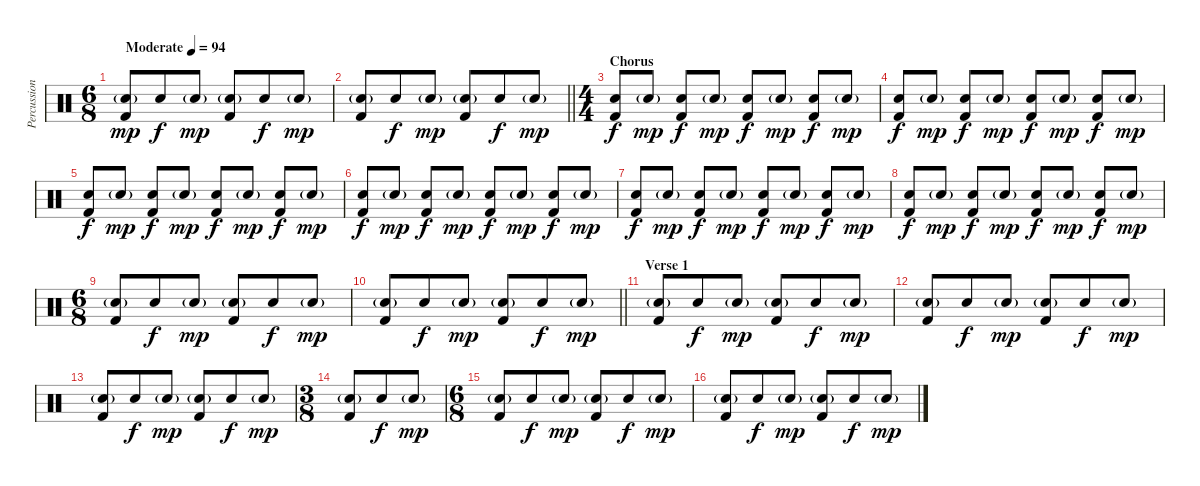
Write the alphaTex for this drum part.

\track ("Percussion" "Percussion") {instrument percussion}
\staff {score}
\articulation defaults
\ts (6 8)
\tempo (94 "Moderate")
\clef neutral
\ks c
("Snare (hit) 2"{g} "Kick (hit) 2").8{dy mp} "Snare (hit) 2".8{dy f} "Snare (hit) 2"{g}.8{dy mp} ("Snare (hit) 2"{g} "Kick (hit) 2").8 "Snare (hit) 2".8{dy f} "Snare (hit) 2"{g}.8{dy mp} |
\barLineRight lightlight
("Snare (hit) 2"{g} "Kick (hit) 2").8 "Snare (hit) 2".8{dy f} "Snare (hit) 2"{g}.8{dy mp} ("Snare (hit) 2"{g} "Kick (hit) 2").8 "Snare (hit) 2".8{dy f} "Snare (hit) 2"{g}.8{dy mp} |
\ts (4 4)
\section ("" "Chorus")
("Snare (hit) 2" "Kick (hit) 2").8{dy f} "Snare (hit) 2"{g}.8{dy mp} ("Snare (hit) 2" "Kick (hit) 2").8{dy f} "Snare (hit) 2"{g}.8{dy mp} ("Snare (hit) 2" "Kick (hit) 2").8{dy f} "Snare (hit) 2"{g}.8{dy mp} ("Snare (hit) 2" "Kick (hit) 2").8{dy f} "Snare (hit) 2"{g}.8{dy mp} |
("Snare (hit) 2" "Kick (hit) 2").8{dy f} "Snare (hit) 2"{g}.8{dy mp} ("Snare (hit) 2" "Kick (hit) 2").8{dy f} "Snare (hit) 2"{g}.8{dy mp} ("Snare (hit) 2" "Kick (hit) 2").8{dy f} "Snare (hit) 2"{g}.8{dy mp} ("Snare (hit) 2" "Kick (hit) 2").8{dy f} "Snare (hit) 2"{g}.8{dy mp} |
("Snare (hit) 2" "Kick (hit) 2").8{dy f} "Snare (hit) 2"{g}.8{dy mp} ("Snare (hit) 2" "Kick (hit) 2").8{dy f} "Snare (hit) 2"{g}.8{dy mp} ("Snare (hit) 2" "Kick (hit) 2").8{dy f} "Snare (hit) 2"{g}.8{dy mp} ("Snare (hit) 2" "Kick (hit) 2").8{dy f} "Snare (hit) 2"{g}.8{dy mp} |
("Snare (hit) 2" "Kick (hit) 2").8{dy f} "Snare (hit) 2"{g}.8{dy mp} ("Snare (hit) 2" "Kick (hit) 2").8{dy f} "Snare (hit) 2"{g}.8{dy mp} ("Snare (hit) 2" "Kick (hit) 2").8{dy f} "Snare (hit) 2"{g}.8{dy mp} ("Snare (hit) 2" "Kick (hit) 2").8{dy f} "Snare (hit) 2"{g}.8{dy mp} |
("Snare (hit) 2" "Kick (hit) 2").8{dy f} "Snare (hit) 2"{g}.8{dy mp} ("Snare (hit) 2" "Kick (hit) 2").8{dy f} "Snare (hit) 2"{g}.8{dy mp} ("Snare (hit) 2" "Kick (hit) 2").8{dy f} "Snare (hit) 2"{g}.8{dy mp} ("Snare (hit) 2" "Kick (hit) 2").8{dy f} "Snare (hit) 2"{g}.8{dy mp} |
("Snare (hit) 2" "Kick (hit) 2").8{dy f} "Snare (hit) 2"{g}.8{dy mp} ("Snare (hit) 2" "Kick (hit) 2").8{dy f} "Snare (hit) 2"{g}.8{dy mp} ("Snare (hit) 2" "Kick (hit) 2").8{dy f} "Snare (hit) 2"{g}.8{dy mp} ("Snare (hit) 2" "Kick (hit) 2").8{dy f} "Snare (hit) 2"{g}.8{dy mp} |
\ts (6 8)
("Snare (hit) 2"{g} "Kick (hit) 2").8 "Snare (hit) 2".8{dy f} "Snare (hit) 2"{g}.8{dy mp} ("Snare (hit) 2"{g} "Kick (hit) 2").8 "Snare (hit) 2".8{dy f} "Snare (hit) 2"{g}.8{dy mp} |
\barLineRight lightlight
("Snare (hit) 2"{g} "Kick (hit) 2").8 "Snare (hit) 2".8{dy f} "Snare (hit) 2"{g}.8{dy mp} ("Snare (hit) 2"{g} "Kick (hit) 2").8 "Snare (hit) 2".8{dy f} "Snare (hit) 2"{g}.8{dy mp} |
\section ("" "Verse 1")
("Snare (hit) 2"{g} "Kick (hit) 2").8 "Snare (hit) 2".8{dy f} "Snare (hit) 2"{g}.8{dy mp} ("Snare (hit) 2"{g} "Kick (hit) 2").8 "Snare (hit) 2".8{dy f} "Snare (hit) 2"{g}.8{dy mp} |
("Snare (hit) 2"{g} "Kick (hit) 2").8 "Snare (hit) 2".8{dy f} "Snare (hit) 2"{g}.8{dy mp} ("Snare (hit) 2"{g} "Kick (hit) 2").8 "Snare (hit) 2".8{dy f} "Snare (hit) 2"{g}.8{dy mp} |
("Snare (hit) 2"{g} "Kick (hit) 2").8 "Snare (hit) 2".8{dy f} "Snare (hit) 2"{g}.8{dy mp} ("Snare (hit) 2"{g} "Kick (hit) 2").8 "Snare (hit) 2".8{dy f} "Snare (hit) 2"{g}.8{dy mp} |
\ts (3 8)
("Snare (hit) 2"{g} "Kick (hit) 2").8 "Snare (hit) 2".8{dy f} "Snare (hit) 2"{g}.8{dy mp} |
\ts (6 8)
("Snare (hit) 2"{g} "Kick (hit) 2").8 "Snare (hit) 2".8{dy f} "Snare (hit) 2"{g}.8{dy mp} ("Snare (hit) 2"{g} "Kick (hit) 2").8 "Snare (hit) 2".8{dy f} "Snare (hit) 2"{g}.8{dy mp} |
("Snare (hit) 2"{g} "Kick (hit) 2").8 "Snare (hit) 2".8{dy f} "Snare (hit) 2"{g}.8{dy mp} ("Snare (hit) 2"{g} "Kick (hit) 2").8 "Snare (hit) 2".8{dy f} "Snare (hit) 2"{g}.8{dy mp}
